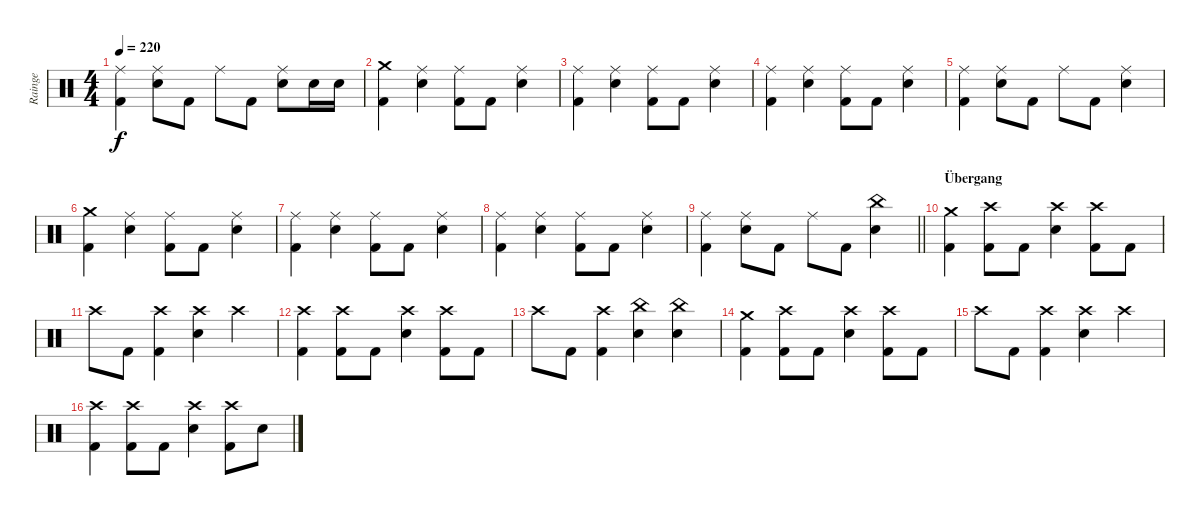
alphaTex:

\track ("Rainge" "Rainge") {instrument percussion}
\staff {score}
\articulation defaults
\ts (4 4)
\tempo 220
\clef neutral
\ks c
("Ride (middle)" "Kick (hit) 2").4{dy f} ("Ride (middle)" "Electric Snare (hit)").8 "Kick (hit) 2".8 "Ride (middle)".8 "Kick (hit) 2".8 ("Ride (middle)" "Electric Snare (hit)").8 "Electric Snare (hit)".16 "Electric Snare (hit)".16 |
("Crash medium (hit)" "Kick (hit) 2").4 ("Ride (middle)" "Electric Snare (hit)").4 ("Ride (middle)" "Kick (hit) 2").8 "Kick (hit) 2".8 ("Ride (middle)" "Electric Snare (hit)").4 |
("Ride (middle)" "Kick (hit) 2").4 ("Ride (middle)" "Electric Snare (hit)").4 ("Ride (middle)" "Kick (hit) 2").8 "Kick (hit) 2".8 ("Ride (middle)" "Electric Snare (hit)").4 |
("Ride (middle)" "Kick (hit) 2").4 ("Ride (middle)" "Electric Snare (hit)").4 ("Ride (middle)" "Kick (hit) 2").8 "Kick (hit) 2".8 ("Ride (middle)" "Electric Snare (hit)").4 |
("Ride (middle)" "Kick (hit) 2").4 ("Ride (middle)" "Electric Snare (hit)").8 "Kick (hit) 2".8 "Ride (middle)".8 "Kick (hit) 2".8 ("Ride (middle)" "Electric Snare (hit)").4 |
("Crash medium (hit)" "Kick (hit) 2").4 ("Ride (middle)" "Electric Snare (hit)").4 ("Ride (middle)" "Kick (hit) 2").8 "Kick (hit) 2".8 ("Ride (middle)" "Electric Snare (hit)").4 |
("Ride (middle)" "Kick (hit) 2").4 ("Ride (middle)" "Electric Snare (hit)").4 ("Ride (middle)" "Kick (hit) 2").8 "Kick (hit) 2".8 ("Ride (middle)" "Electric Snare (hit)").4 |
("Ride (middle)" "Kick (hit) 2").4 ("Ride (middle)" "Electric Snare (hit)").4 ("Ride (middle)" "Kick (hit) 2").8 "Kick (hit) 2".8 ("Ride (middle)" "Electric Snare (hit)").4 |
\barLineRight lightlight
("Ride (middle)" "Kick (hit) 2").4 ("Ride (middle)" "Electric Snare (hit)").8 "Kick (hit) 2".8 "Ride (middle)".8 "Kick (hit) 2".8 ("China (hit)" "Electric Snare (hit)").4 |
\section ("" "Übergang")
("Crash medium (hit)" "Kick (hit) 2").4 ("Crash high (hit)" "Kick (hit) 2").8 "Kick (hit) 2".8 ("Crash high (hit)" "Electric Snare (hit)").4 ("Crash high (hit)" "Kick (hit) 2").8 "Kick (hit) 2".8 |
"Crash high (hit)".8 "Kick (hit) 2".8 ("Crash high (hit)" "Kick (hit) 2").4 ("Crash high (hit)" "Electric Snare (hit)").4 "Crash high (hit)".4 |
("Crash high (hit)" "Kick (hit) 2").4 ("Crash high (hit)" "Kick (hit) 2").8 "Kick (hit) 2".8 ("Crash high (hit)" "Electric Snare (hit)").4 ("Crash high (hit)" "Kick (hit) 2").8 "Kick (hit) 2".8 |
"Crash high (hit)".8 "Kick (hit) 2".8 ("Crash high (hit)" "Kick (hit) 2").4 ("China (hit)" "Electric Snare (hit)").4 ("China (hit)" "Electric Snare (hit)").4 |
("Crash medium (hit)" "Kick (hit) 2").4 ("Crash high (hit)" "Kick (hit) 2").8 "Kick (hit) 2".8 ("Crash high (hit)" "Electric Snare (hit)").4 ("Crash high (hit)" "Kick (hit) 2").8 "Kick (hit) 2".8 |
"Crash high (hit)".8 "Kick (hit) 2".8 ("Crash high (hit)" "Kick (hit) 2").4 ("Crash high (hit)" "Electric Snare (hit)").4 "Crash high (hit)".4 |
("Crash high (hit)" "Kick (hit) 2").4 ("Crash high (hit)" "Kick (hit) 2").8 "Kick (hit) 2".8 ("Crash high (hit)" "Electric Snare (hit)").4 ("Crash high (hit)" "Kick (hit) 2").8 "Electric Snare (hit)".8
